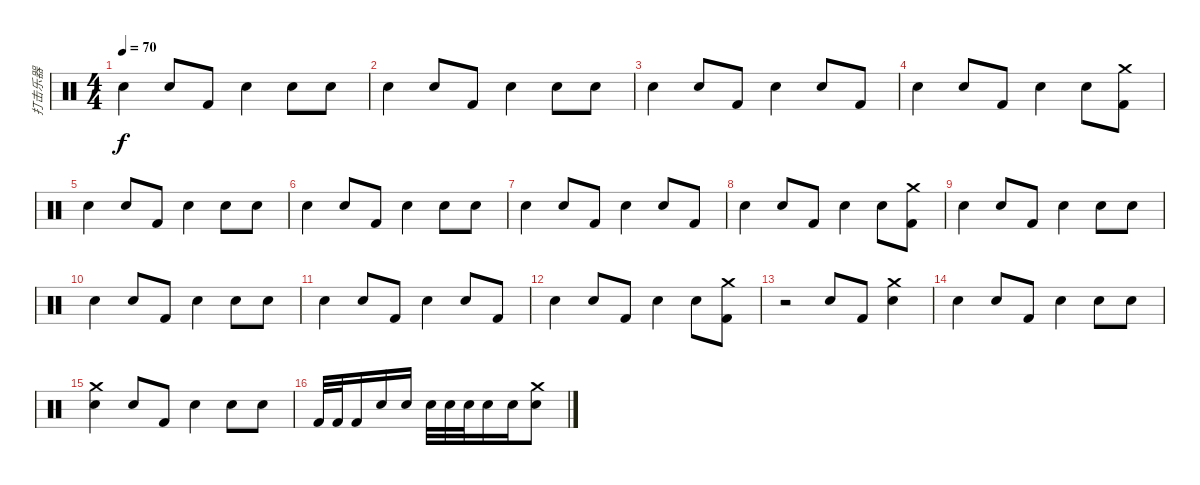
\track ("打击乐器" "打击乐器") {instrument percussion}
\staff {score}
\articulation defaults
\ts (4 4)
\tempo 70
\clef neutral
\ks c "Snare (hit) 2".4{dy f} "Electric Snare (hit)".8 "Kick (hit) 2".8 "Snare (hit) 2".4 "Electric Snare (hit)".8 "Snare (hit) 2".8
|
"Snare (hit) 2".4 "Electric Snare (hit)".8 "Kick (hit) 2".8 "Snare (hit) 2".4 "Electric Snare (hit)".8 "Snare (hit) 2".8 |
"Snare (hit) 2".4 "Electric Snare (hit)".8 "Kick (hit) 2".8 "Snare (hit) 2".4 "Electric Snare (hit)".8 "Kick (hit) 2".8 |
"Snare (hit) 2".4 "Electric Snare (hit)".8 "Kick (hit) 2".8 "Snare (hit) 2".4 "Electric Snare (hit)".8 ("Crash medium (hit)" "Kick (hit) 2").8 |
"Snare (hit) 2".4 "Electric Snare (hit)".8 "Kick (hit) 2".8 "Snare (hit) 2".4 "Electric Snare (hit)".8 "Snare (hit) 2".8 |
"Snare (hit) 2".4 "Electric Snare (hit)".8 "Kick (hit) 2".8 "Snare (hit) 2".4 "Electric Snare (hit)".8 "Snare (hit) 2".8 |
"Snare (hit) 2".4 "Electric Snare (hit)".8 "Kick (hit) 2".8 "Snare (hit) 2".4 "Electric Snare (hit)".8 "Kick (hit) 2".8 |
"Snare (hit) 2".4 "Electric Snare (hit)".8 "Kick (hit) 2".8 "Snare (hit) 2".4 "Electric Snare (hit)".8 ("Crash medium (hit)" "Kick (hit) 2").8 |
"Snare (hit) 2".4 "Electric Snare (hit)".8 "Kick (hit) 2".8 "Snare (hit) 2".4 "Electric Snare (hit)".8 "Snare (hit) 2".8 |
"Snare (hit) 2".4 "Electric Snare (hit)".8 "Kick (hit) 2".8 "Snare (hit) 2".4 "Electric Snare (hit)".8 "Snare (hit) 2".8 |
"Snare (hit) 2".4 "Electric Snare (hit)".8 "Kick (hit) 2".8 "Snare (hit) 2".4 "Electric Snare (hit)".8 "Kick (hit) 2".8 |
"Snare (hit) 2".4 "Electric Snare (hit)".8 "Kick (hit) 2".8 "Snare (hit) 2".4 "Electric Snare (hit)".8 ("Crash medium (hit)" "Kick (hit) 2").8 |
r.2 "Electric Snare (hit)".8 "Kick (hit) 2".8 ("Snare (hit) 2" "Crash medium (hit)").4 |
"Snare (hit) 2".4 "Electric Snare (hit)".8 "Kick (hit) 2".8 "Snare (hit) 2".4 "Electric Snare (hit)".8 "Snare (hit) 2".8 |
("Crash medium (hit)" "Snare (hit) 2").4 "Electric Snare (hit)".8 "Kick (hit) 2".8 "Snare (hit) 2".4 "Electric Snare (hit)".8 "Snare (hit) 2".8 |
"Kick (hit) 2".32 "Kick (hit) 2".32 "Kick (hit) 2".16 "Snare (hit) 2".16 "Snare (hit) 2".16 "Snare (hit) 2".32 "Electric Snare (hit)".32 "Electric Snare (hit)".32 "Electric Snare (hit)".16 "Snare (hit) 2".16 ("Crash medium (hit)" "Snare (hit) 2").8
